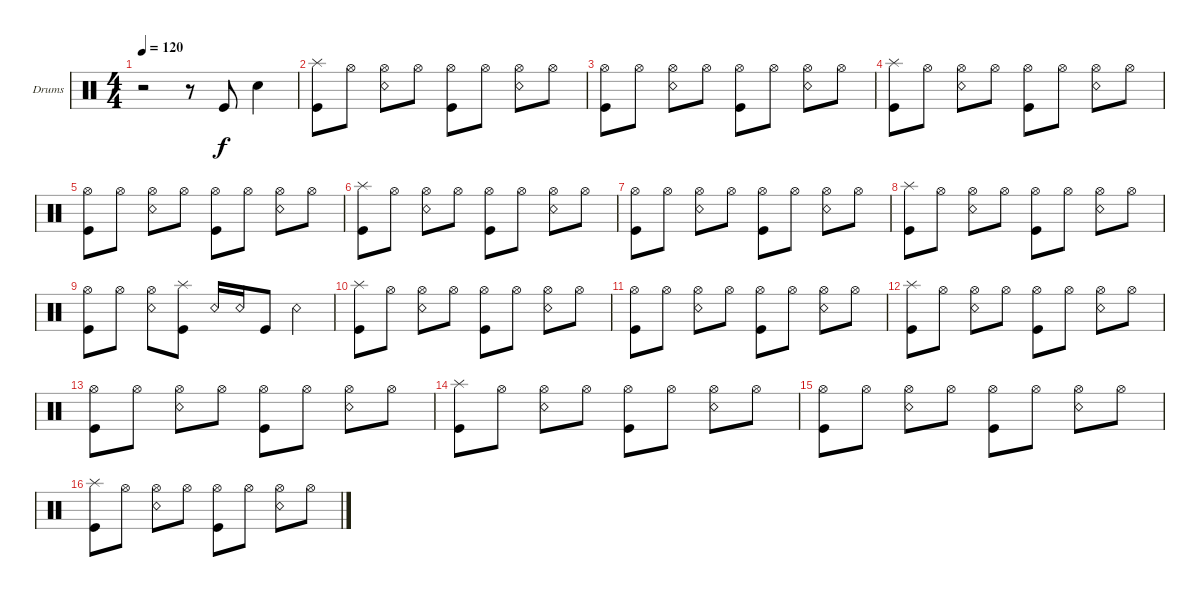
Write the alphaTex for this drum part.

\defaultSystemsLayout 4
\bracketExtendMode groupsimilarinstruments
\firstSystemTrackNameOrientation horizontal
\otherSystemsTrackNameOrientation horizontal
\track ("Drumkit" "Drums") {instrument percussion}
\staff {score}
\articulation defaults
\ts (4 4)
\tempo 120
\clef neutral
\scale
0.474178
\ks c
r.2{dy f} r.8 "Kick (hit)".8 "Snare (hit) 2".4 |
\scale
0.262911 ("Kick (hit)" "Splash (hit)").8 "Hi-Hat (open)".8 ("Hi-Hat (open)" "Snare (rim shot)").8 "Hi-Hat (open)".8 ("Hi-Hat (open)" "Kick (hit)").8 "Hi-Hat (open)".8 ("Hi-Hat (open)" "Snare (rim shot)").8 "Hi-Hat (open)".8 |
\scale
0.262911 ("Kick (hit)" "Hi-Hat (open)").8 "Hi-Hat (open)".8 ("Hi-Hat (open)" "Snare (rim shot)").8 "Hi-Hat (open)".8 ("Hi-Hat (open)" "Kick (hit)").8 "Hi-Hat (open)".8 ("Hi-Hat (open)" "Snare (rim shot)").8 "Hi-Hat (open)".8 |
\scale
0.333333 ("Kick (hit)" "Splash (hit)").8 "Hi-Hat (open)".8 ("Hi-Hat (open)" "Snare (rim shot)").8 "Hi-Hat (open)".8 ("Hi-Hat (open)" "Kick (hit)").8 "Hi-Hat (open)".8 ("Hi-Hat (open)" "Snare (rim shot)").8 "Hi-Hat (open)".8 |
\scale
0.333333 ("Kick (hit)" "Hi-Hat (open)").8 "Hi-Hat (open)".8 ("Hi-Hat (open)" "Snare (rim shot)").8 "Hi-Hat (open)".8 ("Hi-Hat (open)" "Kick (hit)").8 "Hi-Hat (open)".8 ("Hi-Hat (open)" "Snare (rim shot)").8 "Hi-Hat (open)".8 |
\scale
0.333333 ("Kick (hit)" "Splash (hit)").8 "Hi-Hat (open)".8 ("Hi-Hat (open)" "Snare (rim shot)").8 "Hi-Hat (open)".8 ("Hi-Hat (open)" "Kick (hit)").8 "Hi-Hat (open)".8 ("Hi-Hat (open)" "Snare (rim shot)").8 "Hi-Hat (open)".8 |
\scale
0.333333 ("Kick (hit)" "Hi-Hat (open)").8 "Hi-Hat (open)".8 ("Hi-Hat (open)" "Snare (rim shot)").8 "Hi-Hat (open)".8 ("Hi-Hat (open)" "Kick (hit)").8 "Hi-Hat (open)".8 ("Hi-Hat (open)" "Snare (rim shot)").8 "Hi-Hat (open)".8 |
\scale
0.333333 ("Kick (hit)" "Splash (hit)").8 "Hi-Hat (open)".8 ("Hi-Hat (open)" "Snare (rim shot)").8 "Hi-Hat (open)".8 ("Hi-Hat (open)" "Kick (hit)").8 "Hi-Hat (open)".8 ("Hi-Hat (open)" "Snare (rim shot)").8 "Hi-Hat (open)".8 |
\scale
0.333333 ("Kick (hit)" "Hi-Hat (open)").8 "Hi-Hat (open)".8 ("Hi-Hat (open)" "Snare (rim shot)").8 ("Kick (hit)" "Splash (hit)").8 "Snare (rim shot)".16 "Snare (rim shot)".16 "Kick (hit)".8 "Snare (rim shot)".4 |
\scale
0.333333 ("Kick (hit)" "Splash (hit)").8 "Hi-Hat (open)".8 ("Hi-Hat (open)" "Snare (rim shot)").8 "Hi-Hat (open)".8 ("Hi-Hat (open)" "Kick (hit)").8 "Hi-Hat (open)".8 ("Hi-Hat (open)" "Snare (rim shot)").8 "Hi-Hat (open)".8 |
\scale
0.333333 ("Kick (hit)" "Hi-Hat (open)").8 "Hi-Hat (open)".8 ("Hi-Hat (open)" "Snare (rim shot)").8 "Hi-Hat (open)".8 ("Hi-Hat (open)" "Kick (hit)").8 "Hi-Hat (open)".8 ("Hi-Hat (open)" "Snare (rim shot)").8 "Hi-Hat (open)".8 |
\scale
0.333333 ("Kick (hit)" "Splash (hit)").8 "Hi-Hat (open)".8 ("Hi-Hat (open)" "Snare (rim shot)").8 "Hi-Hat (open)".8 ("Hi-Hat (open)" "Kick (hit)").8 "Hi-Hat (open)".8 ("Hi-Hat (open)" "Snare (rim shot)").8 "Hi-Hat (open)".8 |
\scale
0.333333 ("Kick (hit)" "Hi-Hat (open)").8 "Hi-Hat (open)".8 ("Hi-Hat (open)" "Snare (rim shot)").8 "Hi-Hat (open)".8 ("Hi-Hat (open)" "Kick (hit)").8 "Hi-Hat (open)".8 ("Hi-Hat (open)" "Snare (rim shot)").8 "Hi-Hat (open)".8 |
\scale
0.333333 ("Kick (hit)" "Splash (hit)").8 "Hi-Hat (open)".8 ("Hi-Hat (open)" "Snare (rim shot)").8 "Hi-Hat (open)".8 ("Hi-Hat (open)" "Kick (hit)").8 "Hi-Hat (open)".8 ("Hi-Hat (open)" "Snare (rim shot)").8 "Hi-Hat (open)".8 |
\scale
0.333333 ("Kick (hit)" "Hi-Hat (open)").8 "Hi-Hat (open)".8 ("Hi-Hat (open)" "Snare (rim shot)").8 "Hi-Hat (open)".8 ("Hi-Hat (open)" "Kick (hit)").8 "Hi-Hat (open)".8 ("Hi-Hat (open)" "Snare (rim shot)").8 "Hi-Hat (open)".8 |
\scale
0.333333 ("Kick (hit)" "Splash (hit)").8 "Hi-Hat (open)".8 ("Hi-Hat (open)" "Snare (rim shot)").8 "Hi-Hat (open)".8 ("Hi-Hat (open)" "Kick (hit)").8 "Hi-Hat (open)".8 ("Hi-Hat (open)" "Snare (rim shot)").8 "Hi-Hat (open)".8
